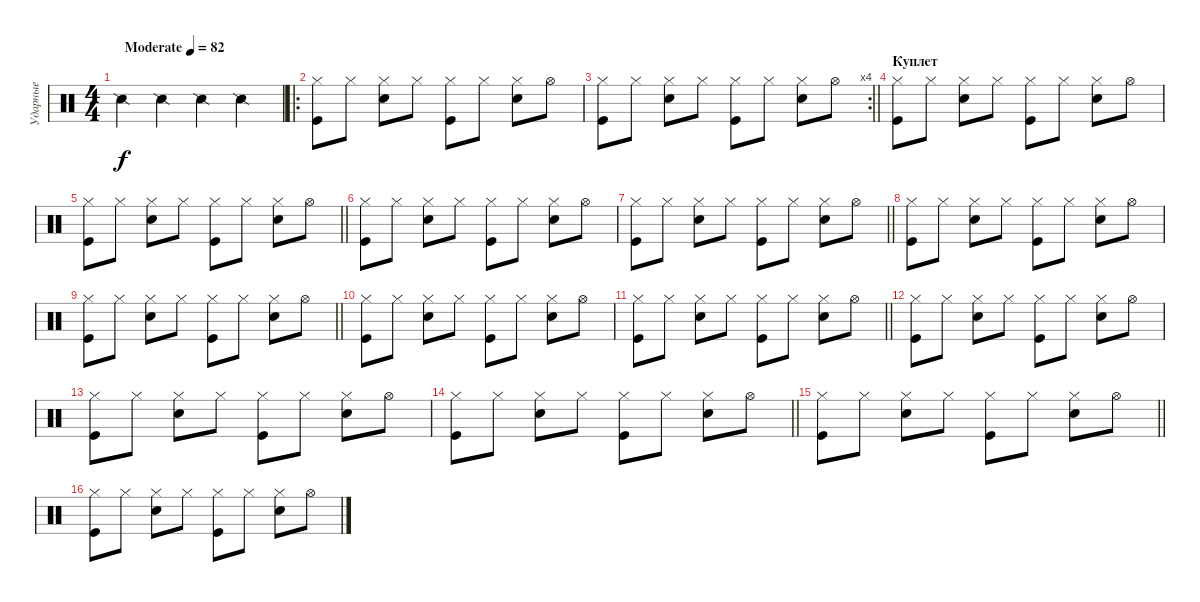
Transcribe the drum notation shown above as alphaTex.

\track ("Ударные" "Ударные") {instrument percussion}
\staff {score}
\articulation defaults
\ts (4 4)
\tempo (82 "Moderate")
\clef neutral
\ks c "Snare (side stick) 2".4{dy f} "Snare (side stick) 2".4 "Snare (side stick) 2".4 "Snare (side stick) 2".4
|
\ro
("Kick (hit)" "Hi-Hat (closed)").8 "Hi-Hat (closed)".8 ("Electric Snare (hit)" "Hi-Hat (closed)").8 "Hi-Hat (closed)".8 ("Kick (hit)" "Hi-Hat (closed)").8 "Hi-Hat (closed)".8 ("Electric Snare (hit)" "Hi-Hat (closed)").8 "Hi-Hat (open)".8 |
\rc 4
\barLineRight lightlight
("Kick (hit)" "Hi-Hat (closed)").8 "Hi-Hat (closed)".8 ("Electric Snare (hit)" "Hi-Hat (closed)").8 "Hi-Hat (closed)".8 ("Kick (hit)" "Hi-Hat (closed)").8 "Hi-Hat (closed)".8 ("Electric Snare (hit)" "Hi-Hat (closed)").8 "Hi-Hat (open)".8 |
\section ("" "Куплет")
("Kick (hit)" "Hi-Hat (closed)").8 "Hi-Hat (closed)".8 ("Electric Snare (hit)" "Hi-Hat (closed)").8 "Hi-Hat (closed)".8 ("Kick (hit)" "Hi-Hat (closed)").8 "Hi-Hat (closed)".8 ("Electric Snare (hit)" "Hi-Hat (closed)").8 "Hi-Hat (open)".8 |
\barLineRight lightlight
("Kick (hit)" "Hi-Hat (closed)").8 "Hi-Hat (closed)".8 ("Electric Snare (hit)" "Hi-Hat (closed)").8 "Hi-Hat (closed)".8 ("Kick (hit)" "Hi-Hat (closed)").8 "Hi-Hat (closed)".8 ("Electric Snare (hit)" "Hi-Hat (closed)").8 "Hi-Hat (open)".8 |
("Kick (hit)" "Hi-Hat (closed)").8 "Hi-Hat (closed)".8 ("Electric Snare (hit)" "Hi-Hat (closed)").8 "Hi-Hat (closed)".8 ("Kick (hit)" "Hi-Hat (closed)").8 "Hi-Hat (closed)".8 ("Electric Snare (hit)" "Hi-Hat (closed)").8 "Hi-Hat (open)".8 |
\barLineRight lightlight
("Kick (hit)" "Hi-Hat (closed)").8 "Hi-Hat (closed)".8 ("Electric Snare (hit)" "Hi-Hat (closed)").8 "Hi-Hat (closed)".8 ("Kick (hit)" "Hi-Hat (closed)").8 "Hi-Hat (closed)".8 ("Electric Snare (hit)" "Hi-Hat (closed)").8 "Hi-Hat (open)".8 |
("Kick (hit)" "Hi-Hat (closed)").8 "Hi-Hat (closed)".8 ("Electric Snare (hit)" "Hi-Hat (closed)").8 "Hi-Hat (closed)".8 ("Kick (hit)" "Hi-Hat (closed)").8 "Hi-Hat (closed)".8 ("Electric Snare (hit)" "Hi-Hat (closed)").8 "Hi-Hat (open)".8 |
\barLineRight lightlight
("Kick (hit)" "Hi-Hat (closed)").8 "Hi-Hat (closed)".8 ("Electric Snare (hit)" "Hi-Hat (closed)").8 "Hi-Hat (closed)".8 ("Kick (hit)" "Hi-Hat (closed)").8 "Hi-Hat (closed)".8 ("Electric Snare (hit)" "Hi-Hat (closed)").8 "Hi-Hat (open)".8 |
("Kick (hit)" "Hi-Hat (closed)").8 "Hi-Hat (closed)".8 ("Electric Snare (hit)" "Hi-Hat (closed)").8 "Hi-Hat (closed)".8 ("Kick (hit)" "Hi-Hat (closed)").8 "Hi-Hat (closed)".8 ("Electric Snare (hit)" "Hi-Hat (closed)").8 "Hi-Hat (open)".8 |
\barLineRight lightlight
("Kick (hit)" "Hi-Hat (closed)").8 "Hi-Hat (closed)".8 ("Electric Snare (hit)" "Hi-Hat (closed)").8 "Hi-Hat (closed)".8 ("Kick (hit)" "Hi-Hat (closed)").8 "Hi-Hat (closed)".8 ("Electric Snare (hit)" "Hi-Hat (closed)").8 "Hi-Hat (open)".8 |
("Kick (hit)" "Hi-Hat (closed)").8 "Hi-Hat (closed)".8 ("Electric Snare (hit)" "Hi-Hat (closed)").8 "Hi-Hat (closed)".8 ("Kick (hit)" "Hi-Hat (closed)").8 "Hi-Hat (closed)".8 ("Electric Snare (hit)" "Hi-Hat (closed)").8 "Hi-Hat (open)".8 |
("Kick (hit)" "Hi-Hat (closed)").8 "Hi-Hat (closed)".8 ("Electric Snare (hit)" "Hi-Hat (closed)").8 "Hi-Hat (closed)".8 ("Kick (hit)" "Hi-Hat (closed)").8 "Hi-Hat (closed)".8 ("Electric Snare (hit)" "Hi-Hat (closed)").8 "Hi-Hat (open)".8 |
\barLineRight lightlight
("Kick (hit)" "Hi-Hat (closed)").8 "Hi-Hat (closed)".8 ("Electric Snare (hit)" "Hi-Hat (closed)").8 "Hi-Hat (closed)".8 ("Kick (hit)" "Hi-Hat (closed)").8 "Hi-Hat (closed)".8 ("Electric Snare (hit)" "Hi-Hat (closed)").8 "Hi-Hat (open)".8 |
\barLineRight lightlight
("Kick (hit)" "Hi-Hat (closed)").8 "Hi-Hat (closed)".8 ("Electric Snare (hit)" "Hi-Hat (closed)").8 "Hi-Hat (closed)".8 ("Kick (hit)" "Hi-Hat (closed)").8 "Hi-Hat (closed)".8 ("Electric Snare (hit)" "Hi-Hat (closed)").8 "Hi-Hat (open)".8 |
("Kick (hit)" "Hi-Hat (closed)").8 "Hi-Hat (closed)".8 ("Electric Snare (hit)" "Hi-Hat (closed)").8 "Hi-Hat (closed)".8 ("Kick (hit)" "Hi-Hat (closed)").8 "Hi-Hat (closed)".8 ("Electric Snare (hit)" "Hi-Hat (closed)").8 "Hi-Hat (open)".8
